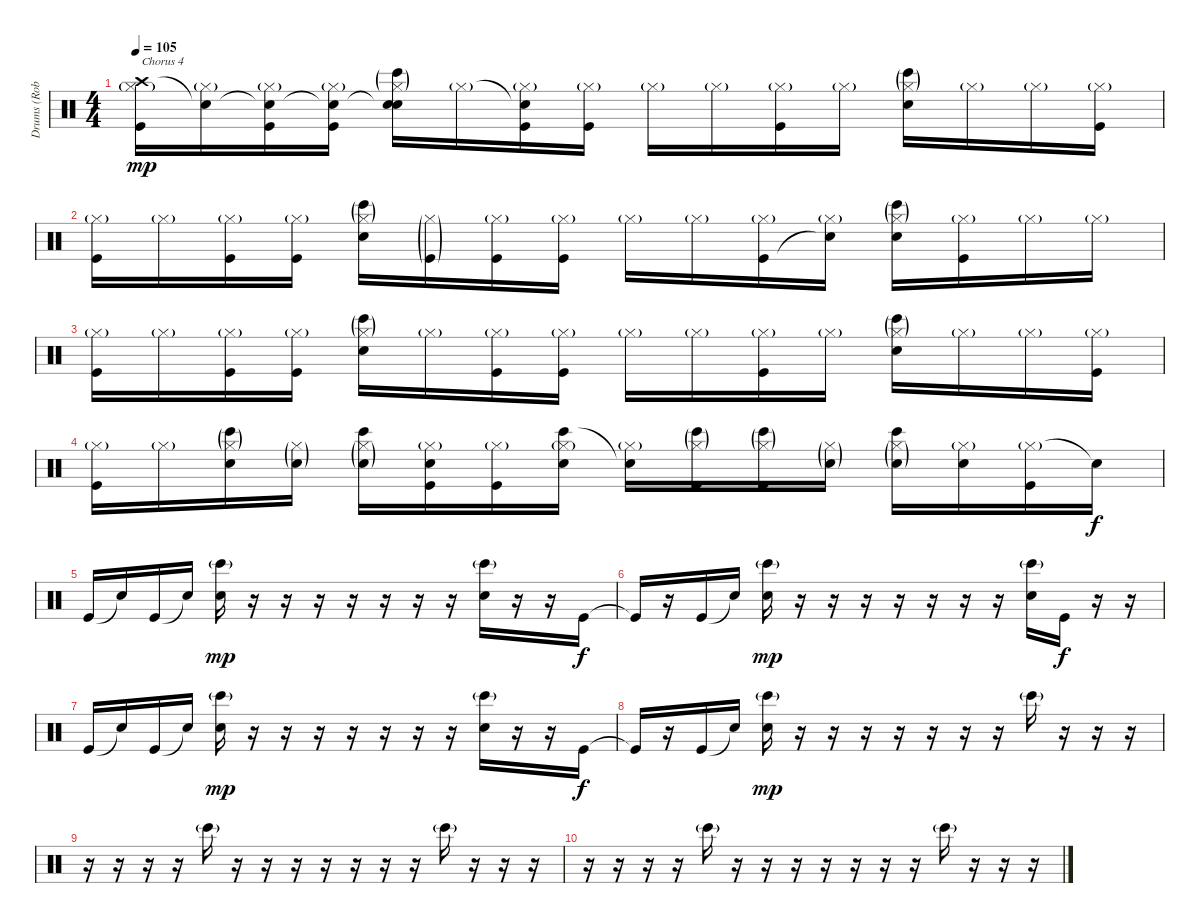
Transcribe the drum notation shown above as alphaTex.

\track ("Drums (Rob Bourdon)" "Drums (Rob") {instrument percussion}
\staff {score}
\articulation defaults
\ts (4 4)
\tempo 105
\clef neutral
\ks c
("Crash high (hit)" "Hi-Hat (closed)"{g} "Kick (hit)").16{txt "Chorus 4" dy mp} ("Snare (hit)"{t} "Hi-Hat (closed)"{g}).16 ("Snare (hit)"{t} "Hi-Hat (closed)"{g} "Kick (hit)").16 ("Snare (hit)"{t} "Hi-Hat (closed)"{g} "Kick (hit)").16 ("Snare (hit)"{t} "Hi-Hat (closed)"{g} "Bongo High (hit)"{g} "Electric Snare (hit)").16 "Hi-Hat (closed)"{g}.16 ("Snare (hit)"{t} "Hi-Hat (closed)"{g} "Kick (hit)").16 ("Hi-Hat (closed)"{g} "Kick (hit)").16 "Hi-Hat (closed)"{g}.16 "Hi-Hat (closed)"{g}.16 ("Hi-Hat (closed)"{g} "Kick (hit)").16 "Hi-Hat (closed)"{g}.16 ("Hi-Hat (closed)"{g} "Bongo High (hit)"{g} "Electric Snare (hit)").16 "Hi-Hat (closed)"{g}.16 "Hi-Hat (closed)"{g}.16 ("Hi-Hat (closed)"{g} "Kick (hit)").16 |
("Hi-Hat (closed)"{g} "Kick (hit)").16 "Hi-Hat (closed)"{g}.16 ("Hi-Hat (closed)"{g} "Kick (hit)").16 ("Hi-Hat (closed)"{g} "Kick (hit)").16 ("Hi-Hat (closed)"{g} "Bongo High (hit)"{g} "Electric Snare (hit)").16 ("Hi-Hat (closed)"{g} "Kick (hit)"{g}).16 ("Hi-Hat (closed)"{g} "Kick (hit)").16 ("Hi-Hat (closed)"{g} "Kick (hit)").16 "Hi-Hat (closed)"{g}.16 "Hi-Hat (closed)"{g}.16 ("Hi-Hat (closed)"{g} "Kick (hit)").16 ("Hi-Hat (closed)"{g} "Snare (hit)"{t}).16 ("Hi-Hat (closed)"{g} "Bongo High (hit)"{g} "Electric Snare (hit)").16 ("Hi-Hat (closed)"{g} "Kick (hit)").16 "Hi-Hat (closed)"{g}.16 "Hi-Hat (closed)"{g}.16 |
("Hi-Hat (closed)"{g} "Kick (hit)").16 "Hi-Hat (closed)"{g}.16 ("Hi-Hat (closed)"{g} "Kick (hit)").16 ("Hi-Hat (closed)"{g} "Kick (hit)").16 ("Hi-Hat (closed)"{g} "Bongo High (hit)"{g} "Electric Snare (hit)").16 "Hi-Hat (closed)"{g}.16 ("Hi-Hat (closed)"{g} "Kick (hit)").16 ("Hi-Hat (closed)"{g} "Kick (hit)").16 "Hi-Hat (closed)"{g}.16 "Hi-Hat (closed)"{g}.16 ("Hi-Hat (closed)"{g} "Kick (hit)").16 "Hi-Hat (closed)"{g}.16 ("Hi-Hat (closed)"{g} "Bongo High (hit)"{g} "Electric Snare (hit)").16 "Hi-Hat (closed)"{g}.16 "Hi-Hat (closed)"{g}.16 ("Hi-Hat (closed)"{g} "Kick (hit)").16 |
("Hi-Hat (closed)"{g} "Kick (hit)").16 "Hi-Hat (closed)"{g}.16 ("Hi-Hat (closed)"{g} "Bongo High (hit)"{g} "Electric Snare (hit)").16 ("Hi-Hat (closed)"{g} "Electric Snare (hit)"{g}).16 ("Hi-Hat (closed)"{g} "Bongo High (hit)" "Electric Snare (hit)"{g}).16 ("Hi-Hat (closed)"{g} "Electric Snare (hit)" "Kick (hit)").16 ("Hi-Hat (closed)"{g} "Kick (hit)").16 ("Hi-Hat (closed)"{g} "Bongo High (hit)" "Electric Snare (hit)").16 ("Hi-Hat (closed)"{g} "Snare (hit)"{t}).16 ("Hi-Hat (closed)"{g} "Bongo High (hit)"{g} "Kick (hit)").16 ("Hi-Hat (closed)"{g} "Bongo High (hit)"{g} "Kick (hit)").16 ("Hi-Hat (closed)"{g} "Electric Snare (hit)"{g}).16 ("Hi-Hat (closed)"{g} "Bongo High (hit)" "Electric Snare (hit)"{g}).16 ("Hi-Hat (closed)"{g} "Electric Snare (hit)").16 ("Hi-Hat (closed)"{g} "Kick (hit)").16 "Snare (hit)"{t}.16{dy f} |
"Kick (hit)".16 "Snare (hit)"{t}.16 "Kick (hit)".16 "Snare (hit)"{t}.16 ("Electric Snare (hit)" "Bongo High (hit)"{g}).16{dy mp} r.16 r.16 r.16 r.16 r.16 r.16 r.16 ("Electric Snare (hit)" "Bongo High (hit)"{g}).16 r.16 r.16 "Kick (hit)".16{dy f} |
"Kick (hit)"{t}.16 r.16 "Kick (hit)".16 "Snare (hit)"{t}.16 ("Electric Snare (hit)" "Bongo High (hit)"{g}).16{dy mp} r.16 r.16 r.16 r.16 r.16 r.16 r.16 ("Electric Snare (hit)" "Bongo High (hit)"{g}).16 "Kick (hit)".16{dy f} r.16 r.16 |
"Kick (hit)".16 "Snare (hit)"{t}.16 "Kick (hit)".16 "Snare (hit)"{t}.16 ("Electric Snare (hit)" "Bongo High (hit)"{g}).16{dy mp} r.16 r.16 r.16 r.16 r.16 r.16 r.16 ("Electric Snare (hit)" "Bongo High (hit)"{g}).16 r.16 r.16 "Kick (hit)".16{dy f} |
"Kick (hit)"{t}.16 r.16 "Kick (hit)".16 "Snare (hit)"{t}.16 ("Electric Snare (hit)" "Bongo High (hit)"{g}).16{dy mp} r.16 r.16 r.16 r.16 r.16 r.16 r.16 "Bongo High (hit)"{g}.16 r.16 r.16 r.16 |
r.16 r.16 r.16 r.16 "Bongo High (hit)"{g}.16 r.16 r.16 r.16 r.16 r.16 r.16 r.16 "Bongo High (hit)"{g}.16 r.16 r.16 r.16 |
r.16 r.16 r.16 r.16 "Bongo High (hit)"{g}.16 r.16 r.16 r.16 r.16 r.16 r.16 r.16 "Bongo High (hit)"{g}.16 r.16 r.16 r.16
